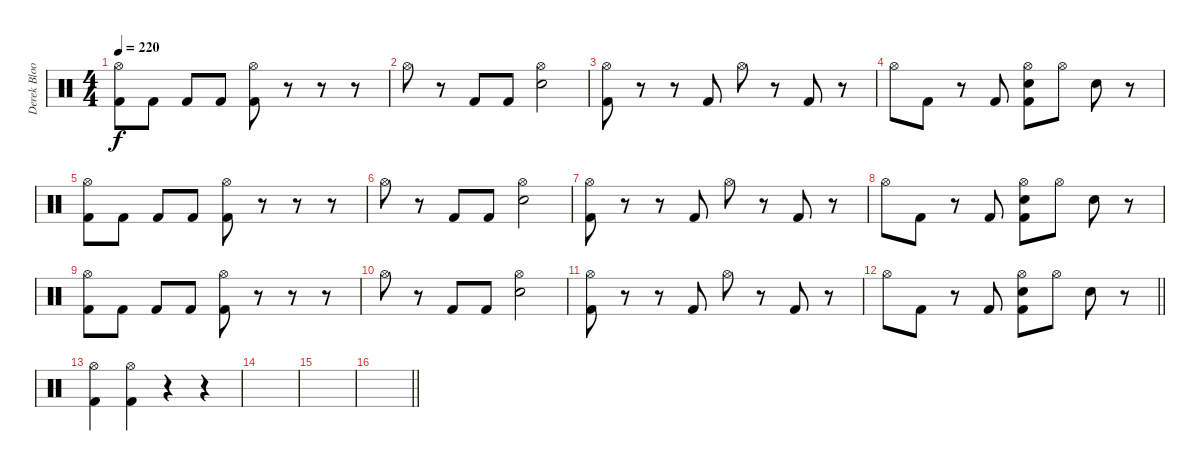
\track ("Derek Bloom - Drums" "Derek Bloo") {instrument percussion}
\staff {score}
\articulation defaults
\ts (4 4)
\tempo 220
\clef neutral
\ks c
("Hi-Hat (open)" "Kick (hit) 2").8{dy f} "Kick (hit) 2".8 "Kick (hit) 2".8 "Kick (hit) 2".8 ("Hi-Hat (open)" "Kick (hit) 2").8 r.8 r.8 r.8 |
"Hi-Hat (open)".8 r.8 "Kick (hit) 2".8 "Kick (hit) 2".8 ("Hi-Hat (open)" "Electric Snare (hit)").2 |
("Hi-Hat (open)" "Kick (hit) 2").8 r.8 r.8 "Kick (hit) 2".8 "Hi-Hat (open)".8 r.8 "Kick (hit) 2".8 r.8 |
"Hi-Hat (open)".8 "Kick (hit) 2".8 r.8 "Kick (hit) 2".8 ("Hi-Hat (open)" "Electric Snare (hit)" "Kick (hit) 2").8 "Hi-Hat (open)".8 "Electric Snare (hit)".8 r.8 |
("Hi-Hat (open)" "Kick (hit) 2").8 "Kick (hit) 2".8 "Kick (hit) 2".8 "Kick (hit) 2".8 ("Hi-Hat (open)" "Kick (hit) 2").8 r.8 r.8 r.8 |
"Hi-Hat (open)".8 r.8 "Kick (hit) 2".8 "Kick (hit) 2".8 ("Hi-Hat (open)" "Electric Snare (hit)").2 |
("Hi-Hat (open)" "Kick (hit) 2").8 r.8 r.8 "Kick (hit) 2".8 "Hi-Hat (open)".8 r.8 "Kick (hit) 2".8 r.8 |
"Hi-Hat (open)".8 "Kick (hit) 2".8 r.8 "Kick (hit) 2".8 ("Hi-Hat (open)" "Electric Snare (hit)" "Kick (hit) 2").8 "Hi-Hat (open)".8 "Electric Snare (hit)".8 r.8 |
("Hi-Hat (open)" "Kick (hit) 2").8 "Kick (hit) 2".8 "Kick (hit) 2".8 "Kick (hit) 2".8 ("Hi-Hat (open)" "Kick (hit) 2").8 r.8 r.8 r.8 |
"Hi-Hat (open)".8 r.8 "Kick (hit) 2".8 "Kick (hit) 2".8 ("Hi-Hat (open)" "Electric Snare (hit)").2 |
("Hi-Hat (open)" "Kick (hit) 2").8 r.8 r.8 "Kick (hit) 2".8 "Hi-Hat (open)".8 r.8 "Kick (hit) 2".8 r.8 |
\barLineRight lightlight "Hi-Hat (open)".8 "Kick (hit) 2".8
r.8 "Kick (hit) 2".8 ("Hi-Hat (open)" "Electric Snare (hit)" "Kick (hit) 2").8 "Hi-Hat (open)".8 "Electric Snare (hit)".8 r.8 |
("Hi-Hat (open)" "Kick (hit) 2").4 ("Hi-Hat (open)" "Kick (hit) 2").4 r.4 r.4 |
|
|
\barLineRight lightlight
